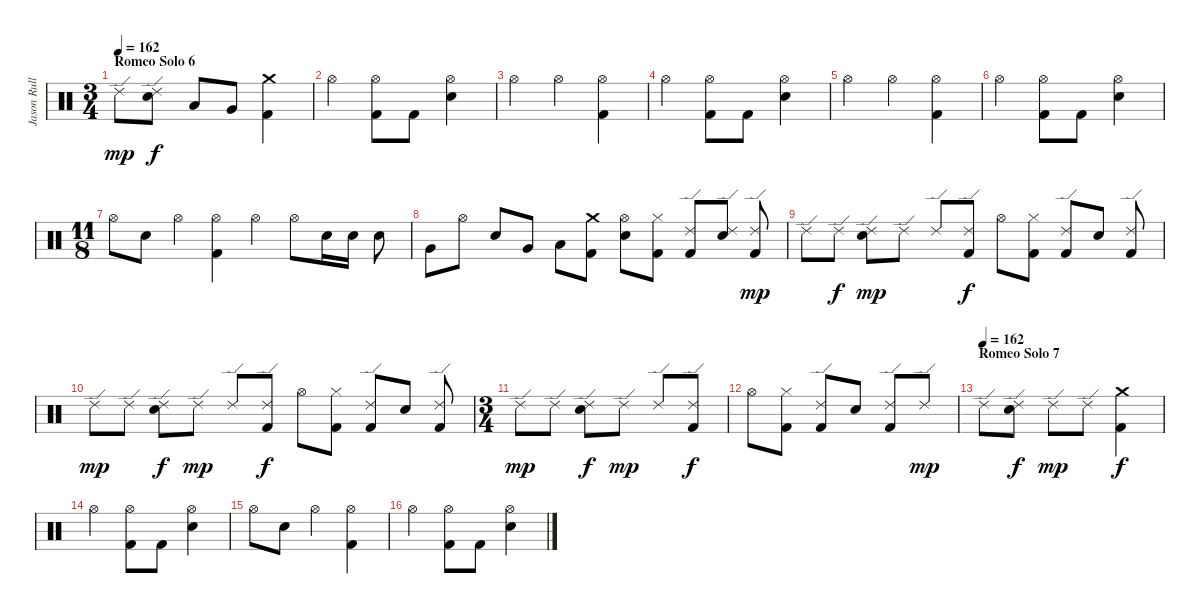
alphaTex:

\track ("Jason Rullo" "Jason Rull") {instrument percussion}
\staff {score}
\articulation defaults
\ts (3 4)
\section ("" "Romeo Solo 6")
\tempo 162
\clef neutral
\ks c "Ride (edge) 2".8{dy mp}
("Ride (edge) 2" "Electric Snare (hit)").8{dy f} "Low Tom (hit)".8 "Very Low Tom (hit)".8 ("Kick (hit) 2" "Crash medium (hit)").4 |
"Hi-Hat (open)".4 ("Kick (hit) 2" "Hi-Hat (open)").8 "Kick (hit) 2".8 ("Electric Snare (hit)" "Hi-Hat (open)").4 |
"Hi-Hat (open)".4 "Hi-Hat (open)".4 ("Hi-Hat (open)" "Kick (hit) 2").4 |
"Hi-Hat (open)".4 ("Kick (hit) 2" "Hi-Hat (open)").8 "Kick (hit) 2".8 ("Electric Snare (hit)" "Hi-Hat (open)").4 |
"Hi-Hat (open)".4 "Hi-Hat (open)".4 ("Hi-Hat (open)" "Kick (hit) 2").4 |
"Hi-Hat (open)".4 ("Kick (hit) 2" "Hi-Hat (open)").8 "Kick (hit) 2".8 ("Electric Snare (hit)" "Hi-Hat (open)").4 |
\ts (11 8)
"Hi-Hat (open)".8 "Electric Snare (hit)".8 "Hi-Hat (open)".4 ("Hi-Hat (open)" "Kick (hit) 2").4 "Hi-Hat (open)".4 "Hi-Hat (open)".8 "Electric Snare (hit)".16 "Electric Snare (hit)".16 "Electric Snare (hit)".8 |
"Very Low Tom (hit)".8 "Hi-Hat (open)".8 "Electric Snare (hit)".8 "Very Low Tom (hit)".8 "Low Floor Tom (hit)".8 ("Crash medium (hit)" "Kick (hit) 2").8 ("Hi-Hat (open)" "Electric Snare (hit)").8 ("Hi-Hat (closed)" "Kick (hit) 2").8 ("Ride (edge) 2" "Kick (hit) 2").8 ("Ride (edge) 2" "Electric Snare (hit)").8 ("Ride (edge) 2" "Kick (hit) 2").8{dy mp} |
"Ride (edge) 2".8 "Ride (edge) 2".8{dy f} ("Ride (edge) 2" "Electric Snare (hit)").8{dy mp} "Ride (edge) 2".8 "Ride (edge) 2".8 ("Ride (edge) 2" "Kick (hit) 2").8{dy f} "Hi-Hat (open)".8 ("Hi-Hat (closed)" "Kick (hit) 2").8 ("Ride (edge) 2" "Kick (hit) 2").8 "Electric Snare (hit)".8 ("Ride (edge) 2" "Kick (hit) 2").8 |
"Ride (edge) 2".8{dy mp} "Ride (edge) 2".8 ("Ride (edge) 2" "Electric Snare (hit)").8{dy f} "Ride (edge) 2".8{dy mp} "Ride (edge) 2".8 ("Ride (edge) 2" "Kick (hit) 2").8{dy f} "Hi-Hat (open)".8 ("Hi-Hat (closed)" "Kick (hit) 2").8 ("Ride (edge) 2" "Kick (hit) 2").8 "Electric Snare (hit)".8 ("Ride (edge) 2" "Kick (hit) 2").8 |
\ts (3 4)
"Ride (edge) 2".8{dy mp} "Ride (edge) 2".8 ("Ride (edge) 2" "Electric Snare (hit)").8{dy f} "Ride (edge) 2".8{dy mp} "Ride (edge) 2".8 ("Ride (edge) 2" "Kick (hit) 2").8{dy f} |
"Hi-Hat (open)".8 ("Hi-Hat (closed)" "Kick (hit) 2").8 ("Ride (edge) 2" "Kick (hit) 2").8 "Electric Snare (hit)".8 ("Ride (edge) 2" "Kick (hit) 2").8 "Ride (edge) 2".8{dy mp} |
\section ("" "Romeo Solo 7")
\tempo (162)
"Ride (edge) 2".8 ("Ride (edge) 2" "Electric Snare (hit)").8{dy f} "Ride (edge) 2".8{dy mp} "Ride (edge) 2".8 ("Kick (hit) 2" "Crash medium (hit)").4{dy f} |
"Hi-Hat (open)".4 ("Kick (hit) 2" "Hi-Hat (open)").8 "Kick (hit) 2".8 ("Electric Snare (hit)" "Hi-Hat (open)").4 |
"Hi-Hat (open)".8 "Electric Snare (hit)".8 "Hi-Hat (open)".4 ("Hi-Hat (open)" "Kick (hit) 2").4 |
"Hi-Hat (open)".4 ("Kick (hit) 2" "Hi-Hat (open)").8 "Kick (hit) 2".8 ("Electric Snare (hit)" "Hi-Hat (open)").4
